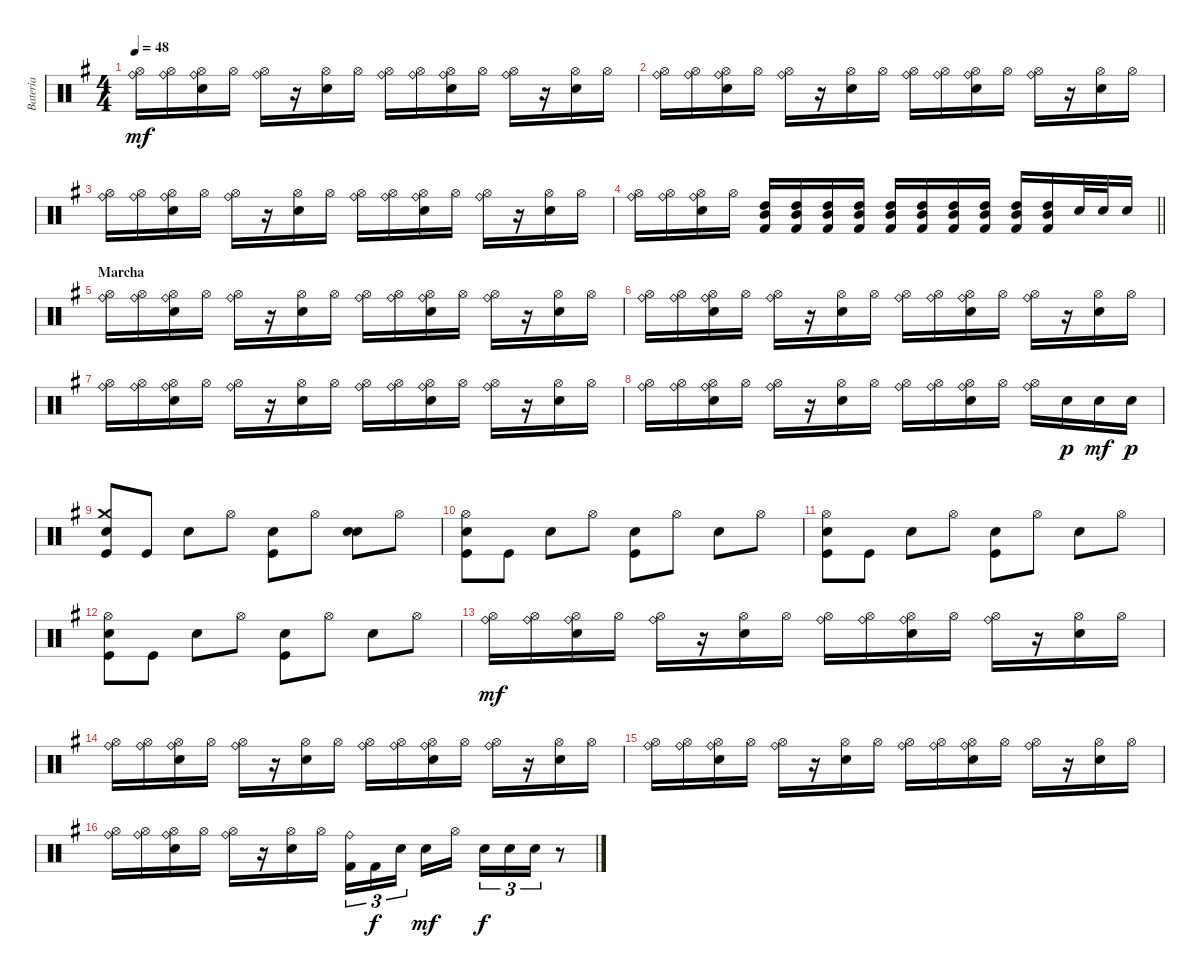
\track ("Bateria" "Bateria") {instrument percussion}
\staff {score}
\articulation defaults
\ts (4 4)
\tempo 48
\clef neutral
\ks g
("Hi-Hat (open)" "Ride (bell)").16{dy mf} ("Hi-Hat (open)" "Ride (bell)").16 ("Hi-Hat (open)" "Ride (bell)" "Electric Snare (hit)").16 "Hi-Hat (open)".16 ("Hi-Hat (open)" "Ride (bell)").16 r.16 ("Hi-Hat (open)" "Electric Snare (hit)").16 "Hi-Hat (open)".16 ("Hi-Hat (open)" "Ride (bell)").16 ("Hi-Hat (open)" "Ride (bell)").16 ("Hi-Hat (open)" "Ride (bell)" "Electric Snare (hit)").16 "Hi-Hat (open)".16 ("Hi-Hat (open)" "Ride (bell)").16 r.16 ("Hi-Hat (open)" "Electric Snare (hit)").16 "Hi-Hat (open)".16 |
("Hi-Hat (open)" "Ride (bell)").16 ("Hi-Hat (open)" "Ride (bell)").16 ("Hi-Hat (open)" "Ride (bell)" "Electric Snare (hit)").16 "Hi-Hat (open)".16 ("Hi-Hat (open)" "Ride (bell)").16 r.16 ("Hi-Hat (open)" "Electric Snare (hit)").16 "Hi-Hat (open)".16 ("Hi-Hat (open)" "Ride (bell)").16 ("Hi-Hat (open)" "Ride (bell)").16 ("Hi-Hat (open)" "Ride (bell)" "Electric Snare (hit)").16 "Hi-Hat (open)".16 ("Hi-Hat (open)" "Ride (bell)").16 r.16 ("Hi-Hat (open)" "Electric Snare (hit)").16 "Hi-Hat (open)".16 |
("Hi-Hat (open)" "Ride (bell)").16 ("Hi-Hat (open)" "Ride (bell)").16 ("Hi-Hat (open)" "Ride (bell)" "Electric Snare (hit)").16 "Hi-Hat (open)".16 ("Hi-Hat (open)" "Ride (bell)").16 r.16 ("Hi-Hat (open)" "Electric Snare (hit)").16 "Hi-Hat (open)".16 ("Hi-Hat (open)" "Ride (bell)").16 ("Hi-Hat (open)" "Ride (bell)").16 ("Hi-Hat (open)" "Ride (bell)" "Electric Snare (hit)").16 "Hi-Hat (open)".16 ("Hi-Hat (open)" "Ride (bell)").16 r.16 ("Hi-Hat (open)" "Electric Snare (hit)").16 "Hi-Hat (open)".16 |
\barLineRight lightlight
("Hi-Hat (open)" "Ride (bell)").16 ("Hi-Hat (open)" "Ride (bell)").16 ("Hi-Hat (open)" "Ride (bell)" "Electric Snare (hit)").16 "Hi-Hat (open)".16 ("High Tom (hit)" "Mid Tom (hit)" "Kick (hit) 2").16 ("High Tom (hit)" "Mid Tom (hit)" "Kick (hit) 2").16 ("High Tom (hit)" "Mid Tom (hit)" "Kick (hit) 2").16 ("High Tom (hit)" "Mid Tom (hit)" "Kick (hit) 2").16 ("High Tom (hit)" "Mid Tom (hit)" "Kick (hit) 2").16 ("High Tom (hit)" "Mid Tom (hit)" "Kick (hit) 2").16 ("High Tom (hit)" "Mid Tom (hit)" "Kick (hit) 2").16 ("High Tom (hit)" "Mid Tom (hit)" "Kick (hit) 2").16 ("High Tom (hit)" "Mid Tom (hit)" "Kick (hit) 2").16 ("High Tom (hit)" "Mid Tom (hit)" "Kick (hit) 2").16 "Snare (hit) 2".32 "Snare (hit) 2".32 "Snare (hit) 2".16 |
\section ("" "Marcha")
("Hi-Hat (open)" "Ride (bell)").16 ("Hi-Hat (open)" "Ride (bell)").16 ("Hi-Hat (open)" "Ride (bell)" "Electric Snare (hit)").16 "Hi-Hat (open)".16 ("Hi-Hat (open)" "Ride (bell)").16 r.16 ("Hi-Hat (open)" "Electric Snare (hit)").16 "Hi-Hat (open)".16 ("Hi-Hat (open)" "Ride (bell)").16 ("Hi-Hat (open)" "Ride (bell)").16 ("Hi-Hat (open)" "Ride (bell)" "Electric Snare (hit)").16 "Hi-Hat (open)".16 ("Hi-Hat (open)" "Ride (bell)").16 r.16 ("Hi-Hat (open)" "Electric Snare (hit)").16 "Hi-Hat (open)".16 |
("Hi-Hat (open)" "Ride (bell)").16 ("Hi-Hat (open)" "Ride (bell)").16 ("Hi-Hat (open)" "Ride (bell)" "Electric Snare (hit)").16 "Hi-Hat (open)".16 ("Hi-Hat (open)" "Ride (bell)").16 r.16 ("Hi-Hat (open)" "Electric Snare (hit)").16 "Hi-Hat (open)".16 ("Hi-Hat (open)" "Ride (bell)").16 ("Hi-Hat (open)" "Ride (bell)").16 ("Hi-Hat (open)" "Ride (bell)" "Electric Snare (hit)").16 "Hi-Hat (open)".16 ("Hi-Hat (open)" "Ride (bell)").16 r.16 ("Hi-Hat (open)" "Electric Snare (hit)").16 "Hi-Hat (open)".16 |
("Hi-Hat (open)" "Ride (bell)").16 ("Hi-Hat (open)" "Ride (bell)").16 ("Hi-Hat (open)" "Ride (bell)" "Electric Snare (hit)").16 "Hi-Hat (open)".16 ("Hi-Hat (open)" "Ride (bell)").16 r.16 ("Hi-Hat (open)" "Electric Snare (hit)").16 "Hi-Hat (open)".16 ("Hi-Hat (open)" "Ride (bell)").16 ("Hi-Hat (open)" "Ride (bell)").16 ("Hi-Hat (open)" "Ride (bell)" "Electric Snare (hit)").16 "Hi-Hat (open)".16 ("Hi-Hat (open)" "Ride (bell)").16 r.16 ("Hi-Hat (open)" "Electric Snare (hit)").16 "Hi-Hat (open)".16 |
("Hi-Hat (open)" "Ride (bell)").16 ("Hi-Hat (open)" "Ride (bell)").16 ("Hi-Hat (open)" "Ride (bell)" "Electric Snare (hit)").16 "Hi-Hat (open)".16 ("Hi-Hat (open)" "Ride (bell)").16 r.16 ("Hi-Hat (open)" "Electric Snare (hit)").16 "Hi-Hat (open)".16 ("Hi-Hat (open)" "Ride (bell)").16 ("Hi-Hat (open)" "Ride (bell)").16 ("Hi-Hat (open)" "Ride (bell)" "Electric Snare (hit)").16 "Hi-Hat (open)".16 ("Hi-Hat (open)" "Ride (bell)").16 "Electric Snare (hit)".16{dy p} "Electric Snare (hit)".16{dy mf} "Electric Snare (hit)".16{dy p} |
("Electric Snare (hit)" "Crash medium (hit)" "Kick (hit)").8 "Kick (hit)".8 "Snare (hit) 2".8 "Hi-Hat (open)".8 ("Snare (hit) 2" "Kick (hit)").8 "Hi-Hat (open)".8 ("Snare (hit) 2" "Snare (hit) 2").8 "Hi-Hat (open)".8 |
("Hi-Hat (open)" "Electric Snare (hit)" "Kick (hit)").8 "Kick (hit)".8 "Snare (hit) 2".8 "Hi-Hat (open)".8 ("Snare (hit) 2" "Kick (hit)").8 "Hi-Hat (open)".8 "Snare (hit) 2".8 "Hi-Hat (open)".8 |
("Hi-Hat (open)" "Electric Snare (hit)" "Kick (hit)").8 "Kick (hit)".8 "Snare (hit) 2".8 "Hi-Hat (open)".8 ("Snare (hit) 2" "Kick (hit)").8 "Hi-Hat (open)".8 "Snare (hit) 2".8 "Hi-Hat (open)".8 |
("Hi-Hat (open)" "Electric Snare (hit)" "Kick (hit)").8 "Kick (hit)".8 "Snare (hit) 2".8 "Hi-Hat (open)".8 ("Snare (hit) 2" "Kick (hit)").8 "Hi-Hat (open)".8 "Snare (hit) 2".8 "Hi-Hat (open)".8 |
("Hi-Hat (open)" "Ride (bell)").16{dy mf} ("Hi-Hat (open)" "Ride (bell)").16 ("Hi-Hat (open)" "Ride (bell)" "Electric Snare (hit)").16 "Hi-Hat (open)".16 ("Hi-Hat (open)" "Ride (bell)").16 r.16 ("Hi-Hat (open)" "Electric Snare (hit)").16 "Hi-Hat (open)".16 ("Hi-Hat (open)" "Ride (bell)").16 ("Hi-Hat (open)" "Ride (bell)").16 ("Hi-Hat (open)" "Ride (bell)" "Electric Snare (hit)").16 "Hi-Hat (open)".16 ("Hi-Hat (open)" "Ride (bell)").16 r.16 ("Hi-Hat (open)" "Electric Snare (hit)").16 "Hi-Hat (open)".16 |
("Hi-Hat (open)" "Ride (bell)").16 ("Hi-Hat (open)" "Ride (bell)").16 ("Hi-Hat (open)" "Ride (bell)" "Electric Snare (hit)").16 "Hi-Hat (open)".16 ("Hi-Hat (open)" "Ride (bell)").16 r.16 ("Hi-Hat (open)" "Electric Snare (hit)").16 "Hi-Hat (open)".16 ("Hi-Hat (open)" "Ride (bell)").16 ("Hi-Hat (open)" "Ride (bell)").16 ("Hi-Hat (open)" "Ride (bell)" "Electric Snare (hit)").16 "Hi-Hat (open)".16 ("Hi-Hat (open)" "Ride (bell)").16 r.16 ("Hi-Hat (open)" "Electric Snare (hit)").16 "Hi-Hat (open)".16 |
("Hi-Hat (open)" "Ride (bell)").16 ("Hi-Hat (open)" "Ride (bell)").16 ("Hi-Hat (open)" "Ride (bell)" "Electric Snare (hit)").16 "Hi-Hat (open)".16 ("Hi-Hat (open)" "Ride (bell)").16 r.16 ("Hi-Hat (open)" "Electric Snare (hit)").16 "Hi-Hat (open)".16 ("Hi-Hat (open)" "Ride (bell)").16 ("Hi-Hat (open)" "Ride (bell)").16 ("Hi-Hat (open)" "Ride (bell)" "Electric Snare (hit)").16 "Hi-Hat (open)".16 ("Hi-Hat (open)" "Ride (bell)").16 r.16 ("Hi-Hat (open)" "Electric Snare (hit)").16 "Hi-Hat (open)".16 |
("Hi-Hat (open)" "Ride (bell)").16 ("Hi-Hat (open)" "Ride (bell)").16 ("Hi-Hat (open)" "Ride (bell)" "Electric Snare (hit)").16 "Hi-Hat (open)".16 ("Hi-Hat (open)" "Ride (bell)").16 r.16 ("Hi-Hat (open)" "Electric Snare (hit)").16 "Hi-Hat (open)".16 ("Ride (bell)" "Kick (hit) 2").16{tu (3 2)} "Kick (hit) 2".16{tu (3 2) dy f} "Electric Snare (hit)".16{tu (3 2) beam splitsecondary} "Electric Snare (hit)".16{dy mf} "Hi-Hat (open)".16 "Snare (hit) 2".16{tu (3 2) dy f} "Snare (hit) 2".16{tu (3 2)} "Snare (hit) 2".16{tu (3 2)} r.8
